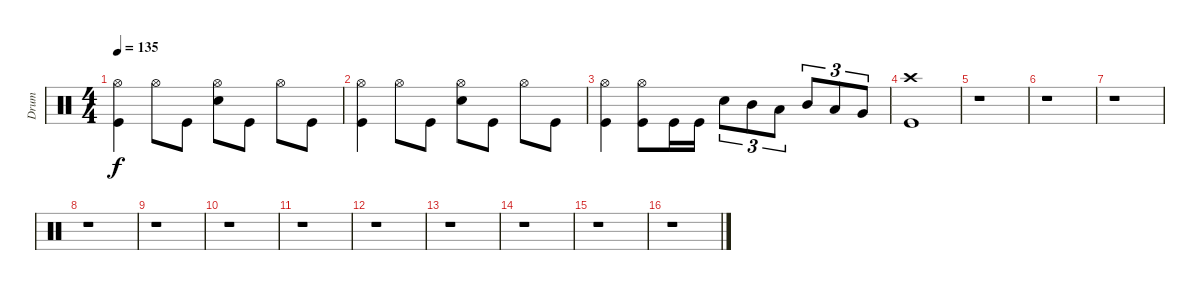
\track ("Drum" "Drum") {instrument percussion}
\staff {score}
\articulation defaults
\ts (4 4)
\tempo 135
\clef neutral
\ks c
("Kick (hit)" "Hi-Hat (open)").4{dy f} "Hi-Hat (open)".8 "Kick (hit)".8 ("Electric Snare (hit)" "Hi-Hat (open)").8 "Kick (hit)".8 "Hi-Hat (open)".8 "Kick (hit)".8 |
("Kick (hit)" "Hi-Hat (open)").4 "Hi-Hat (open)".8 "Kick (hit)".8 ("Electric Snare (hit)" "Hi-Hat (open)").8 "Kick (hit)".8 "Hi-Hat (open)".8 "Kick (hit)".8 |
("Kick (hit)" "Hi-Hat (open)").4 ("Kick (hit)" "Hi-Hat (open)").8 "Kick (hit)".16 "Kick (hit)".16 "Electric Snare (hit)".8{tu (3 2)} "Mid Tom (hit)".8{tu (3 2)} "Low Tom (hit)".8{tu (3 2)} "Mid Tom (hit)".8{tu (3 2)} "Low Tom (hit)".8{tu (3 2)} "Very Low Tom (hit)".8{tu (3 2)} |
("Kick (hit)" "Crash high (hit)").1 |
r.1 |
r.1 |
r.1 |
r.1 |
r.1 |
r.1 |
r.1 |
r.1 |
r.1 |
r.1 |
r.1 |
r.1
